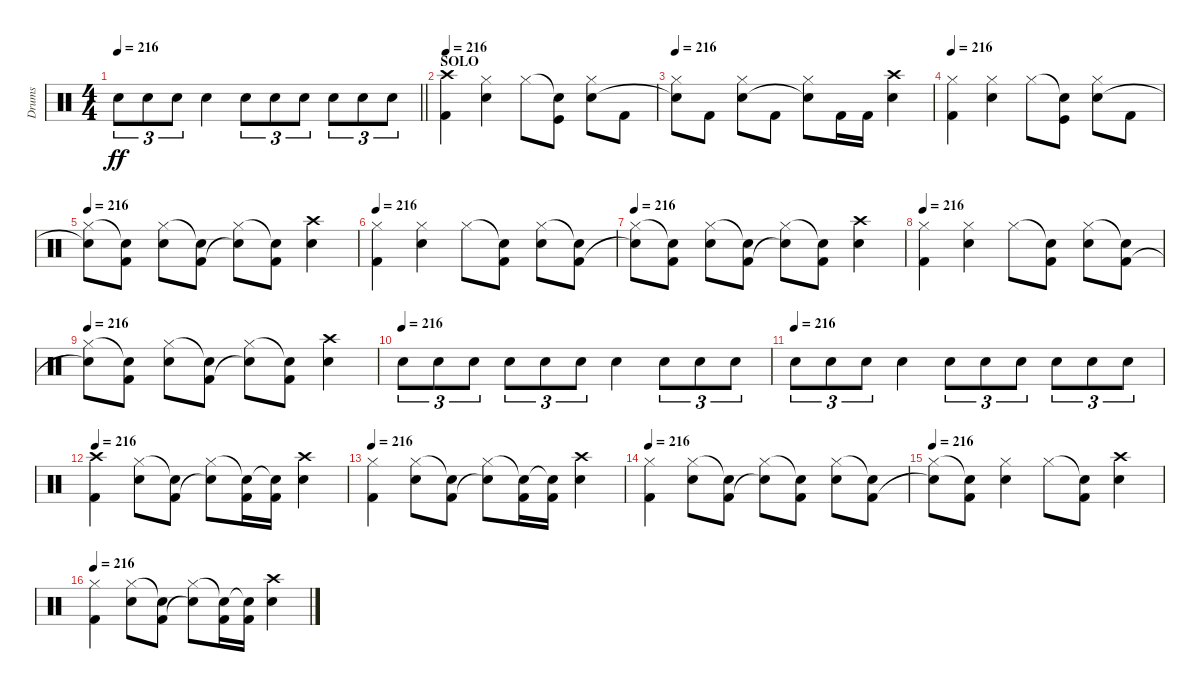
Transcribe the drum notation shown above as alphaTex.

\track ("Drums" "Drums") {instrument percussion}
\staff {score}
\articulation defaults
\ts (4 4)
\tempo 216
\clef neutral
\barLineRight lightlight
\ks c "Snare (hit) 2".8{tu (3 2) dy ff} "Snare (hit) 2".8{tu (3 2)} "Snare (hit) 2".8{tu (3 2)} "Snare (hit) 2".4 "Snare (hit) 2".8{tu (3 2)} "Snare (hit) 2".8{tu (3 2)} "Snare (hit) 2".8{tu (3 2)} "Snare (hit) 2".8{tu (3 2)} "Snare (hit) 2".8{tu (3 2)} "Snare (hit) 2".8{tu (3 2)}
|
\section ("" "SOLO")
\tempo 216
("Crash high (hit)" "Kick (hit) 2").4 ("Hi-Hat (closed)" "Snare (hit) 2").4 "Hi-Hat (closed)".8 ("Snare (hit)"{t} "Kick (hit)").8 ("Hi-Hat (closed)" "Snare (hit) 2").8 "Kick (hit) 2".8 |
\tempo 216
("Hi-Hat (closed)" "Snare (hit)"{t}).8 "Kick (hit) 2".8 ("Hi-Hat (closed)" "Snare (hit) 2").8 "Kick (hit) 2".8 ("Hi-Hat (closed)" "Snare (hit)"{t}).8 "Kick (hit) 2".16 "Kick (hit) 2".16 ("Crash high (hit)" "Snare (hit) 2").4 |
\tempo 216
("Hi-Hat (closed)" "Kick (hit) 2").4 ("Hi-Hat (closed)" "Snare (hit) 2").4 "Hi-Hat (closed)".8 ("Snare (hit)"{t} "Kick (hit)").8 ("Hi-Hat (closed)" "Snare (hit) 2").8 "Kick (hit) 2".8 |
\tempo 216
("Hi-Hat (closed)" "Snare (hit)"{t}).8 ("Snare (hit)"{t} "Kick (hit) 2").8 ("Hi-Hat (closed)" "Snare (hit) 2").8 ("Snare (hit)"{t} "Kick (hit) 2").8 ("Hi-Hat (closed)" "Snare (hit)"{t}).8 ("Snare (hit)"{t} "Kick (hit) 2").8 ("Crash high (hit)" "Snare (hit) 2").4 |
\tempo 216
("Hi-Hat (closed)" "Kick (hit) 2").4 ("Hi-Hat (closed)" "Snare (hit) 2").4 "Hi-Hat (closed)".8 ("Snare (hit)"{t} "Kick (hit) 2").8 ("Hi-Hat (closed)" "Snare (hit) 2").8 ("Snare (hit)"{t} "Kick (hit) 2").8 |
\tempo 216
("Hi-Hat (closed)" "Snare (hit)"{t}).8 ("Snare (hit)"{t} "Kick (hit) 2").8 ("Hi-Hat (closed)" "Snare (hit) 2").8 ("Snare (hit)"{t} "Kick (hit) 2").8 ("Hi-Hat (closed)" "Snare (hit)"{t}).8 ("Snare (hit)"{t} "Kick (hit) 2").8 ("Crash high (hit)" "Snare (hit) 2").4 |
\tempo 216
("Hi-Hat (closed)" "Kick (hit) 2").4 ("Hi-Hat (closed)" "Snare (hit) 2").4 "Hi-Hat (closed)".8 ("Snare (hit)"{t} "Kick (hit) 2").8 ("Hi-Hat (closed)" "Snare (hit) 2").8 ("Snare (hit)"{t} "Kick (hit) 2").8 |
\tempo 216
("Hi-Hat (closed)" "Snare (hit)"{t}).8 ("Snare (hit)"{t} "Kick (hit) 2").8 ("Hi-Hat (closed)" "Snare (hit) 2").8 ("Snare (hit)"{t} "Kick (hit) 2").8 ("Hi-Hat (closed)" "Snare (hit)"{t}).8 ("Snare (hit)"{t} "Kick (hit) 2").8 ("Crash high (hit)" "Snare (hit) 2").4 |
\tempo (216)
"Snare (hit) 2".8{tu (3 2)} "Snare (hit) 2".8{tu (3 2)} "Snare (hit) 2".8{tu (3 2)} "Snare (hit) 2".8{tu (3 2)} "Snare (hit) 2".8{tu (3 2)} "Snare (hit) 2".8{tu (3 2)} "Snare (hit) 2".4 "Snare (hit) 2".8{tu (3 2)} "Snare (hit) 2".8{tu (3 2)} "Snare (hit) 2".8{tu (3 2)} |
\tempo (216)
"Snare (hit) 2".8{tu (3 2)} "Snare (hit) 2".8{tu (3 2)} "Snare (hit) 2".8{tu (3 2)} "Snare (hit) 2".4 "Snare (hit) 2".8{tu (3 2)} "Snare (hit) 2".8{tu (3 2)} "Snare (hit) 2".8{tu (3 2)} "Snare (hit) 2".8{tu (3 2)} "Snare (hit) 2".8{tu (3 2)} "Snare (hit) 2".8{tu (3 2)} |
\tempo 216
("Crash high (hit)" "Kick (hit) 2").4 ("Hi-Hat (closed)" "Snare (hit) 2").8 ("Snare (hit)"{t} "Kick (hit) 2").8 ("Hi-Hat (closed)" "Snare (hit)"{t}).8 ("Snare (hit)"{t} "Kick (hit) 2").16 ("Snare (hit)"{t} "Kick (hit) 2").16 ("Crash high (hit)" "Snare (hit) 2").4 |
\tempo 216
("Hi-Hat (closed)" "Kick (hit) 2").4 ("Hi-Hat (closed)" "Snare (hit) 2").8 ("Snare (hit)"{t} "Kick (hit) 2").8 ("Hi-Hat (closed)" "Snare (hit)"{t}).8 ("Snare (hit)"{t} "Kick (hit) 2").16 ("Snare (hit)"{t} "Kick (hit) 2").16 ("Crash high (hit)" "Snare (hit) 2").4 |
\tempo 216
("Hi-Hat (closed)" "Kick (hit) 2").4 ("Hi-Hat (closed)" "Snare (hit) 2").8 ("Snare (hit)"{t} "Kick (hit) 2").8 ("Hi-Hat (closed)" "Snare (hit)"{t}).8 ("Snare (hit)"{t} "Kick (hit) 2").8 ("Hi-Hat (closed)" "Snare (hit) 2").8 ("Snare (hit)"{t} "Kick (hit) 2").8 |
\tempo 216
("Hi-Hat (closed)" "Snare (hit)"{t}).8 ("Snare (hit)"{t} "Kick (hit) 2").8 ("Hi-Hat (closed)" "Snare (hit) 2").4 "Hi-Hat (closed)".8 ("Snare (hit)"{t} "Kick (hit) 2").8 ("Crash high (hit)" "Snare (hit) 2").4 |
\tempo 216
("Hi-Hat (closed)" "Kick (hit) 2").4 ("Hi-Hat (closed)" "Snare (hit) 2").8 ("Snare (hit)"{t} "Kick (hit) 2").8 ("Hi-Hat (closed)" "Snare (hit)"{t}).8 ("Snare (hit)"{t} "Kick (hit) 2").16 ("Snare (hit)"{t} "Kick (hit) 2").16 ("Crash high (hit)" "Snare (hit) 2").4
